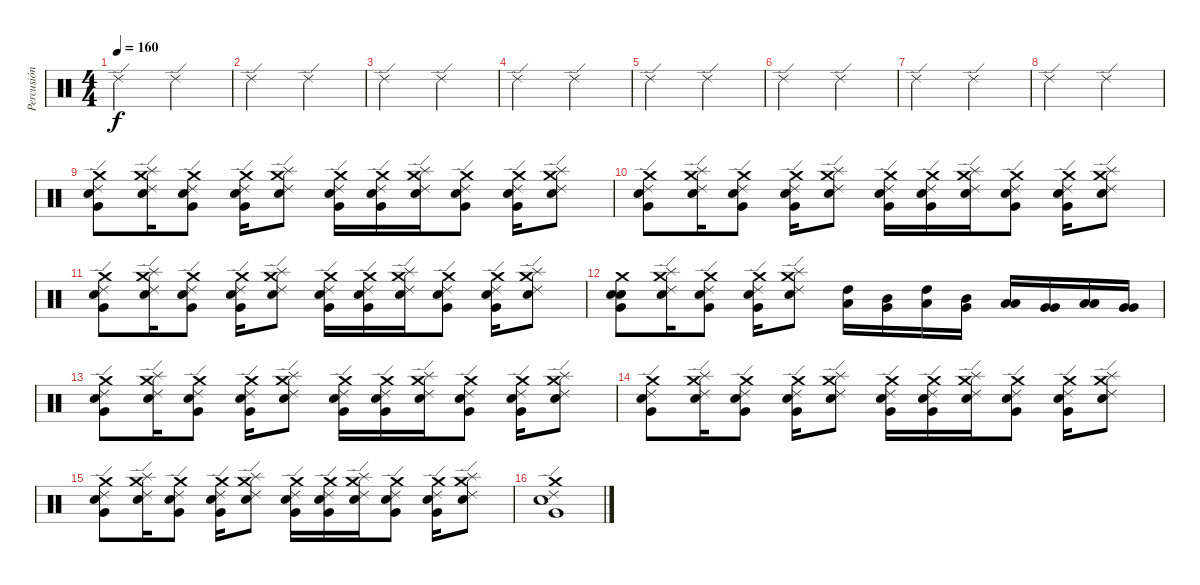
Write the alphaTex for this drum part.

\track ("Percusión" "Percusión") {instrument percussion}
\staff {score}
\articulation defaults
\ts (4 4)
\tempo 160
\clef neutral
\ks c "Ride (edge) 2".2{dy f} "Ride (edge) 2".2
|
"Ride (edge) 2".2 "Ride (edge) 2".2 |
"Ride (edge) 2".2 "Ride (edge) 2".2 |
"Ride (edge) 2".2 "Ride (edge) 2".2 |
"Ride (edge) 2".2 "Ride (edge) 2".2 |
"Ride (edge) 2".2 "Ride (edge) 2".2 |
"Ride (edge) 2".2 "Ride (edge) 2".2 |
"Ride (edge) 2".2 "Ride (edge) 2".2 |
("Snare (hit) 2" "Very Low Tom (hit)" "Ride (edge) 2" "Crash medium (hit)").8 ("Electric Snare (hit)" "Splash (hit)" "Ride (edge) 2" "Crash medium (hit)").16 ("Snare (hit) 2" "Very Low Tom (hit)" "Ride (edge) 2" "Crash medium (hit)").8 ("Snare (hit) 2" "Very Low Tom (hit)" "Ride (edge) 2" "Crash medium (hit)").16 ("Electric Snare (hit)" "Splash (hit)" "Ride (edge) 2" "Crash medium (hit)").8 ("Snare (hit) 2" "Very Low Tom (hit)" "Ride (edge) 2" "Crash medium (hit)").16 ("Snare (hit) 2" "Very Low Tom (hit)" "Ride (edge) 2" "Crash medium (hit)").16 ("Splash (hit)" "Electric Snare (hit)" "Ride (edge) 2" "Crash medium (hit)").16 ("Snare (hit) 2" "Very Low Tom (hit)" "Ride (edge) 2" "Crash medium (hit)").8 ("Snare (hit) 2" "Very Low Tom (hit)" "Ride (edge) 2" "Crash medium (hit)").16 ("Electric Snare (hit)" "Splash (hit)" "Ride (edge) 2" "Crash medium (hit)").8 |
("Snare (hit) 2" "Very Low Tom (hit)" "Ride (edge) 2" "Crash medium (hit)").8 ("Electric Snare (hit)" "Splash (hit)" "Ride (edge) 2" "Crash medium (hit)").16 ("Snare (hit) 2" "Very Low Tom (hit)" "Ride (edge) 2" "Crash medium (hit)").8 ("Snare (hit) 2" "Very Low Tom (hit)" "Ride (edge) 2" "Crash medium (hit)").16 ("Electric Snare (hit)" "Splash (hit)" "Ride (edge) 2" "Crash medium (hit)").8 ("Snare (hit) 2" "Very Low Tom (hit)" "Ride (edge) 2" "Crash medium (hit)").16 ("Snare (hit) 2" "Very Low Tom (hit)" "Ride (edge) 2" "Crash medium (hit)").16 ("Splash (hit)" "Electric Snare (hit)" "Ride (edge) 2" "Crash medium (hit)").16 ("Snare (hit) 2" "Very Low Tom (hit)" "Ride (edge) 2" "Crash medium (hit)").8 ("Snare (hit) 2" "Very Low Tom (hit)" "Ride (edge) 2" "Crash medium (hit)").16 ("Electric Snare (hit)" "Splash (hit)" "Ride (edge) 2" "Crash medium (hit)").8 |
("Snare (hit) 2" "Very Low Tom (hit)" "Ride (edge) 2" "Crash medium (hit)").8 ("Electric Snare (hit)" "Splash (hit)" "Ride (edge) 2" "Crash medium (hit)").16 ("Snare (hit) 2" "Very Low Tom (hit)" "Ride (edge) 2" "Crash medium (hit)").8 ("Snare (hit) 2" "Very Low Tom (hit)" "Ride (edge) 2" "Crash medium (hit)").16 ("Electric Snare (hit)" "Splash (hit)" "Ride (edge) 2" "Crash medium (hit)").8 ("Snare (hit) 2" "Very Low Tom (hit)" "Ride (edge) 2" "Crash medium (hit)").16 ("Snare (hit) 2" "Very Low Tom (hit)" "Ride (edge) 2" "Crash medium (hit)").16 ("Splash (hit)" "Electric Snare (hit)" "Ride (edge) 2" "Crash medium (hit)").16 ("Snare (hit) 2" "Very Low Tom (hit)" "Ride (edge) 2" "Crash medium (hit)").8 ("Snare (hit) 2" "Very Low Tom (hit)" "Ride (edge) 2" "Crash medium (hit)").16 ("Electric Snare (hit)" "Splash (hit)" "Ride (edge) 2" "Crash medium (hit)").8 |
("Snare (hit) 2" "Very Low Tom (hit)" "Snare (hit) 2" "Crash medium (hit)").8 ("Electric Snare (hit)" "Splash (hit)" "Ride (edge) 2" "Crash medium (hit)").16 ("Snare (hit) 2" "Very Low Tom (hit)" "Ride (edge) 2" "Crash medium (hit)").8 ("Snare (hit) 2" "Very Low Tom (hit)" "Ride (edge) 2" "Crash medium (hit)").16 ("Electric Snare (hit)" "Splash (hit)" "Ride (edge) 2" "Crash medium (hit)").8 ("High Tom (hit)" "Low Tom (hit)").16 ("Mid Tom (hit)" "Very Low Tom (hit)").16 ("High Tom (hit)" "Low Tom (hit)").16 ("Very Low Tom (hit)" "Mid Tom (hit)").16 ("Low Tom (hit)" "Low Floor Tom (hit)").16 ("Very Low Tom (hit)" "Very Low Tom (hit)").16 ("Low Tom (hit)" "Low Floor Tom (hit)").16 ("Very Low Tom (hit)" "Very Low Tom (hit)").16 |
("Snare (hit) 2" "Very Low Tom (hit)" "Ride (edge) 2" "Crash medium (hit)").8 ("Electric Snare (hit)" "Splash (hit)" "Ride (edge) 2" "Crash medium (hit)").16 ("Snare (hit) 2" "Very Low Tom (hit)" "Ride (edge) 2" "Crash medium (hit)").8 ("Snare (hit) 2" "Very Low Tom (hit)" "Ride (edge) 2" "Crash medium (hit)").16 ("Electric Snare (hit)" "Splash (hit)" "Ride (edge) 2" "Crash medium (hit)").8 ("Snare (hit) 2" "Very Low Tom (hit)" "Ride (edge) 2" "Crash medium (hit)").16 ("Snare (hit) 2" "Very Low Tom (hit)" "Ride (edge) 2" "Crash medium (hit)").16 ("Splash (hit)" "Electric Snare (hit)" "Ride (edge) 2" "Crash medium (hit)").16 ("Snare (hit) 2" "Very Low Tom (hit)" "Ride (edge) 2" "Crash medium (hit)").8 ("Snare (hit) 2" "Very Low Tom (hit)" "Ride (edge) 2" "Crash medium (hit)").16 ("Electric Snare (hit)" "Splash (hit)" "Ride (edge) 2" "Crash medium (hit)").8 |
("Snare (hit) 2" "Very Low Tom (hit)" "Ride (edge) 2" "Crash medium (hit)").8 ("Electric Snare (hit)" "Splash (hit)" "Ride (edge) 2" "Crash medium (hit)").16 ("Snare (hit) 2" "Very Low Tom (hit)" "Ride (edge) 2" "Crash medium (hit)").8 ("Snare (hit) 2" "Very Low Tom (hit)" "Ride (edge) 2" "Crash medium (hit)").16 ("Electric Snare (hit)" "Splash (hit)" "Ride (edge) 2" "Crash medium (hit)").8 ("Snare (hit) 2" "Very Low Tom (hit)" "Ride (edge) 2" "Crash medium (hit)").16 ("Snare (hit) 2" "Very Low Tom (hit)" "Ride (edge) 2" "Crash medium (hit)").16 ("Splash (hit)" "Electric Snare (hit)" "Ride (edge) 2" "Crash medium (hit)").16 ("Snare (hit) 2" "Very Low Tom (hit)" "Ride (edge) 2" "Crash medium (hit)").8 ("Snare (hit) 2" "Very Low Tom (hit)" "Ride (edge) 2" "Crash medium (hit)").16 ("Electric Snare (hit)" "Splash (hit)" "Ride (edge) 2" "Crash medium (hit)").8 |
("Snare (hit) 2" "Very Low Tom (hit)" "Ride (edge) 2" "Crash medium (hit)").8 ("Electric Snare (hit)" "Splash (hit)" "Ride (edge) 2" "Crash medium (hit)").16 ("Snare (hit) 2" "Very Low Tom (hit)" "Ride (edge) 2" "Crash medium (hit)").8 ("Snare (hit) 2" "Very Low Tom (hit)" "Ride (edge) 2" "Crash medium (hit)").16 ("Electric Snare (hit)" "Splash (hit)" "Ride (edge) 2" "Crash medium (hit)").8 ("Snare (hit) 2" "Very Low Tom (hit)" "Ride (edge) 2" "Crash medium (hit)").16 ("Snare (hit) 2" "Very Low Tom (hit)" "Ride (edge) 2" "Crash medium (hit)").16 ("Splash (hit)" "Electric Snare (hit)" "Ride (edge) 2" "Crash medium (hit)").16 ("Snare (hit) 2" "Very Low Tom (hit)" "Ride (edge) 2" "Crash medium (hit)").8 ("Snare (hit) 2" "Very Low Tom (hit)" "Ride (edge) 2" "Crash medium (hit)").16 ("Electric Snare (hit)" "Splash (hit)" "Ride (edge) 2" "Crash medium (hit)").8 |
("Snare (hit) 2" "Very Low Tom (hit)" "Ride (edge) 2" "Crash medium (hit)").1
